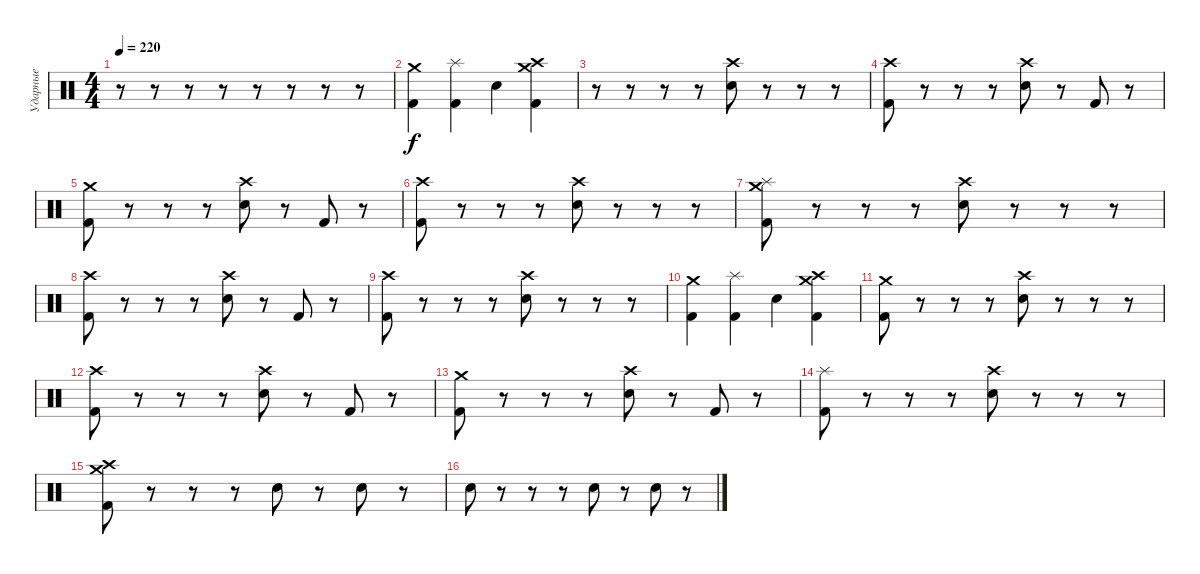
\track ("Ударные" "Ударные") {instrument percussion}
\staff {score}
\articulation defaults
\ts (4 4)
\tempo 220
\clef neutral
\ks c
r.8{dy f} r.8 r.8 r.8 r.8 r.8 r.8 r.8 |
("Kick (hit) 2" "Crash medium (hit)").4 ("Kick (hit) 2" "Splash (hit)").4 "Electric Snare (hit)".4 ("Kick (hit) 2" "Crash medium (hit)" "Crash high (hit)").4 |
r.8 r.8 r.8 r.8 ("Electric Snare (hit)" "Crash high (hit)").8 r.8 r.8 r.8 |
("Kick (hit) 2" "Crash high (hit)").8 r.8 r.8 r.8 ("Electric Snare (hit)" "Crash high (hit)").8 r.8 "Kick (hit) 2".8 r.8 |
("Kick (hit) 2" "Crash medium (hit)").8 r.8 r.8 r.8 ("Electric Snare (hit)" "Crash high (hit)").8 r.8 "Kick (hit) 2".8 r.8 |
("Kick (hit) 2" "Crash high (hit)").8 r.8 r.8 r.8 ("Electric Snare (hit)" "Crash high (hit)").8 r.8 r.8 r.8 |
("Kick (hit) 2" "Splash (hit)" "Crash medium (hit)").8 r.8 r.8 r.8 ("Electric Snare (hit)" "Crash high (hit)").8 r.8 r.8 r.8 |
("Kick (hit) 2" "Crash high (hit)").8 r.8 r.8 r.8 ("Electric Snare (hit)" "Crash high (hit)").8 r.8 "Kick (hit) 2".8 r.8 |
("Kick (hit) 2" "Crash high (hit)").8 r.8 r.8 r.8 ("Electric Snare (hit)" "Crash high (hit)").8 r.8 r.8 r.8 |
("Kick (hit) 2" "Crash medium (hit)").4 ("Kick (hit) 2" "Splash (hit)").4 "Electric Snare (hit)".4 ("Kick (hit) 2" "Crash medium (hit)" "Crash high (hit)").4 |
("Kick (hit) 2" "Crash medium (hit)").8 r.8 r.8 r.8 ("Electric Snare (hit)" "Crash high (hit)").8 r.8 r.8 r.8 |
("Kick (hit) 2" "Crash high (hit)").8 r.8 r.8 r.8 ("Electric Snare (hit)" "Crash high (hit)").8 r.8 "Kick (hit) 2".8 r.8 |
("Kick (hit) 2" "Crash medium (hit)").8 r.8 r.8 r.8 ("Electric Snare (hit)" "Crash high (hit)").8 r.8 "Kick (hit) 2".8 r.8 |
("Kick (hit) 2" "Splash (hit)").8 r.8 r.8 r.8 ("Electric Snare (hit)" "Crash high (hit)").8 r.8 r.8 r.8 |
("Kick (hit) 2" "Crash high (hit)" "Crash medium (hit)").8 r.8 r.8 r.8 "Electric Snare (hit)".8 r.8 "Electric Snare (hit)".8 r.8 |
"Electric Snare (hit)".8 r.8 r.8 r.8 "Electric Snare (hit)".8 r.8 "Electric Snare (hit)".8 r.8
